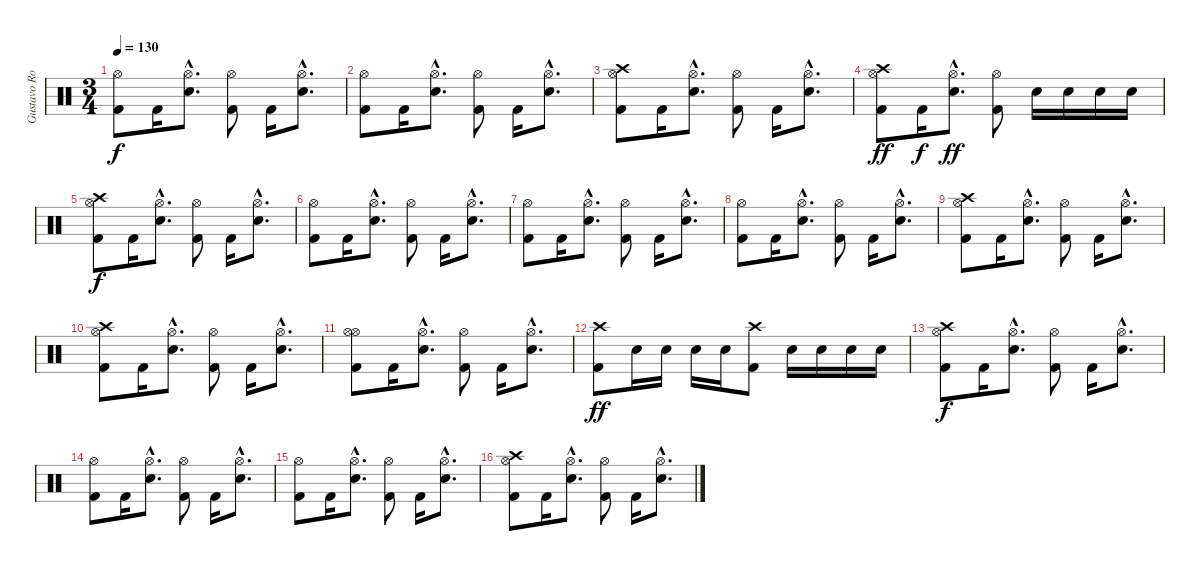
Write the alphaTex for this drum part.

\track ("Gustavo Rowek" "Gustavo Ro") {instrument percussion}
\staff {score}
\articulation defaults
\ts (3 4)
\tempo 130
\clef neutral
\ks c
("Hi-Hat (open)" "Kick (hit) 2").8{dy f} "Kick (hit) 2".16 ("Hi-Hat (open)"{hac} "Snare (hit) 2"{hac}).8{d} ("Hi-Hat (open)" "Kick (hit) 2").8 "Kick (hit) 2".16 ("Hi-Hat (open)"{hac} "Snare (hit) 2"{hac}).8{d} |
("Hi-Hat (open)" "Kick (hit) 2").8 "Kick (hit) 2".16 ("Hi-Hat (open)"{hac} "Snare (hit) 2"{hac}).8{d} ("Hi-Hat (open)" "Kick (hit) 2").8 "Kick (hit) 2".16 ("Hi-Hat (open)"{hac} "Snare (hit) 2"{hac}).8{d} |
("Hi-Hat (open)" "Crash high (hit)" "Kick (hit) 2").8 "Kick (hit) 2".16 ("Hi-Hat (open)"{hac} "Snare (hit) 2"{hac}).8{d} ("Hi-Hat (open)" "Kick (hit) 2").8 "Kick (hit) 2".16 ("Hi-Hat (open)"{hac} "Snare (hit) 2"{hac}).8{d} |
("Hi-Hat (open)" "Crash high (hit)" "Kick (hit) 2").8{dy ff} "Kick (hit) 2".16{dy f} ("Hi-Hat (open)"{hac} "Snare (hit) 2"{hac}).8{d dy ff} ("Hi-Hat (open)" "Kick (hit) 2").8 "Electric Snare (hit)".16 "Electric Snare (hit)".16 "Electric Snare (hit)".16 "Electric Snare (hit)".16 |
("Hi-Hat (open)" "Crash high (hit)" "Kick (hit) 2").8{dy f} "Kick (hit) 2".16 ("Hi-Hat (open)"{hac} "Snare (hit) 2"{hac}).8{d} ("Hi-Hat (open)" "Kick (hit) 2").8 "Kick (hit) 2".16 ("Hi-Hat (open)"{hac} "Snare (hit) 2"{hac}).8{d} |
("Hi-Hat (open)" "Kick (hit) 2").8 "Kick (hit) 2".16 ("Hi-Hat (open)"{hac} "Snare (hit) 2"{hac}).8{d} ("Hi-Hat (open)" "Kick (hit) 2").8 "Kick (hit) 2".16 ("Hi-Hat (open)"{hac} "Snare (hit) 2"{hac}).8{d} |
("Hi-Hat (open)" "Kick (hit) 2").8 "Kick (hit) 2".16 ("Hi-Hat (open)"{hac} "Snare (hit) 2"{hac}).8{d} ("Hi-Hat (open)" "Kick (hit) 2").8 "Kick (hit) 2".16 ("Hi-Hat (open)"{hac} "Snare (hit) 2"{hac}).8{d} |
("Hi-Hat (open)" "Kick (hit) 2").8 "Kick (hit) 2".16 ("Hi-Hat (open)"{hac} "Snare (hit) 2"{hac}).8{d} ("Hi-Hat (open)" "Kick (hit) 2").8 "Kick (hit) 2".16 ("Hi-Hat (open)"{hac} "Snare (hit) 2"{hac}).8{d} |
("Hi-Hat (open)" "Crash high (hit)" "Kick (hit) 2").8 "Kick (hit) 2".16 ("Hi-Hat (open)"{hac} "Snare (hit) 2"{hac}).8{d} ("Hi-Hat (open)" "Kick (hit) 2").8 "Kick (hit) 2".16 ("Hi-Hat (open)"{hac} "Snare (hit) 2"{hac}).8{d} |
("Hi-Hat (open)" "Crash high (hit)" "Kick (hit) 2").8 "Kick (hit) 2".16 ("Hi-Hat (open)"{hac} "Snare (hit) 2"{hac}).8{d} ("Hi-Hat (open)" "Kick (hit) 2").8 "Kick (hit) 2".16 ("Hi-Hat (open)"{hac} "Snare (hit) 2"{hac}).8{d} |
("Hi-Hat (open)" "Hi-Hat (open)" "Kick (hit) 2").8 "Kick (hit) 2".16 ("Hi-Hat (open)"{hac} "Snare (hit) 2"{hac}).8{d} ("Hi-Hat (open)" "Kick (hit) 2").8 "Kick (hit) 2".16 ("Hi-Hat (open)"{hac} "Snare (hit) 2"{hac}).8{d} |
("Kick (hit) 2" "Crash high (hit)").8{dy ff} "Electric Snare (hit)".16 "Electric Snare (hit)".16 "Electric Snare (hit)".16 "Electric Snare (hit)".16 ("Kick (hit) 2" "Crash high (hit)").8 "Electric Snare (hit)".16 "Electric Snare (hit)".16 "Electric Snare (hit)".16 "Electric Snare (hit)".16 |
("Hi-Hat (open)" "Crash high (hit)" "Kick (hit) 2").8{dy f} "Kick (hit) 2".16 ("Hi-Hat (open)"{hac} "Snare (hit) 2"{hac}).8{d} ("Hi-Hat (open)" "Kick (hit) 2").8 "Kick (hit) 2".16 ("Hi-Hat (open)"{hac} "Snare (hit) 2"{hac}).8{d} |
("Hi-Hat (open)" "Kick (hit) 2").8 "Kick (hit) 2".16 ("Hi-Hat (open)"{hac} "Snare (hit) 2"{hac}).8{d} ("Hi-Hat (open)" "Kick (hit) 2").8 "Kick (hit) 2".16 ("Hi-Hat (open)"{hac} "Snare (hit) 2"{hac}).8{d} |
("Hi-Hat (open)" "Kick (hit) 2").8 "Kick (hit) 2".16 ("Hi-Hat (open)"{hac} "Snare (hit) 2"{hac}).8{d} ("Hi-Hat (open)" "Kick (hit) 2").8 "Kick (hit) 2".16 ("Hi-Hat (open)"{hac} "Snare (hit) 2"{hac}).8{d} |
("Hi-Hat (open)" "Crash high (hit)" "Kick (hit) 2").8 "Kick (hit) 2".16 ("Hi-Hat (open)"{hac} "Snare (hit) 2"{hac}).8{d} ("Hi-Hat (open)" "Kick (hit) 2").8 "Kick (hit) 2".16 ("Hi-Hat (open)"{hac} "Snare (hit) 2"{hac}).8{d}
